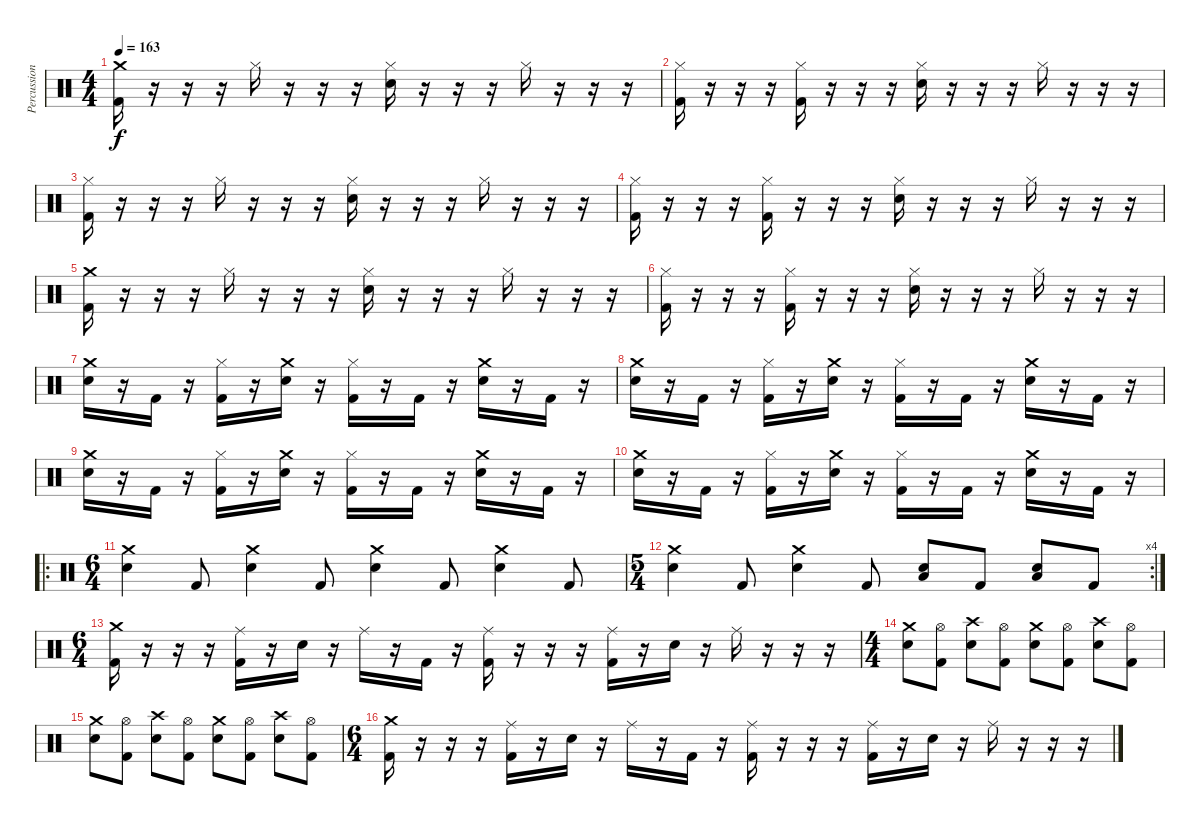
\track ("Percussion" "Percussion") {instrument percussion}
\staff {score}
\articulation defaults
\ts (4 4)
\tempo 163
\clef neutral
\ks c
("Crash medium (hit)" "Kick (hit) 2").16{dy f} r.16 r.16 r.16 "Hi-Hat (closed)".16 r.16 r.16 r.16 ("Hi-Hat (closed)" "Snare (hit) 2").16 r.16 r.16 r.16 "Hi-Hat (closed)".16 r.16 r.16 r.16 |
("Hi-Hat (closed)" "Kick (hit) 2").16 r.16 r.16 r.16 ("Hi-Hat (closed)" "Kick (hit) 2").16 r.16 r.16 r.16 ("Hi-Hat (closed)" "Snare (hit) 2").16 r.16 r.16 r.16 "Hi-Hat (closed)".16 r.16 r.16 r.16 |
("Hi-Hat (closed)" "Kick (hit) 2").16 r.16 r.16 r.16 "Hi-Hat (closed)".16 r.16 r.16 r.16 ("Hi-Hat (closed)" "Snare (hit) 2").16 r.16 r.16 r.16 "Hi-Hat (closed)".16 r.16 r.16 r.16 |
("Hi-Hat (closed)" "Kick (hit) 2").16 r.16 r.16 r.16 ("Hi-Hat (closed)" "Kick (hit) 2").16 r.16 r.16 r.16 ("Hi-Hat (closed)" "Snare (hit) 2").16 r.16 r.16 r.16 "Hi-Hat (closed)".16 r.16 r.16 r.16 |
("Crash medium (hit)" "Kick (hit) 2").16 r.16 r.16 r.16 "Hi-Hat (closed)".16 r.16 r.16 r.16 ("Hi-Hat (closed)" "Snare (hit) 2").16 r.16 r.16 r.16 "Hi-Hat (closed)".16 r.16 r.16 r.16 |
("Hi-Hat (closed)" "Kick (hit) 2").16 r.16 r.16 r.16 ("Hi-Hat (closed)" "Kick (hit) 2").16 r.16 r.16 r.16 ("Hi-Hat (closed)" "Snare (hit) 2").16 r.16 r.16 r.16 "Hi-Hat (closed)".16 r.16 r.16 r.16 |
("Crash medium (hit)" "Snare (hit) 2").16 r.16 "Kick (hit) 2".16 r.16 ("Hi-Hat (closed)" "Kick (hit) 2").16 r.16 ("Crash medium (hit)" "Snare (hit) 2").16 r.16 ("Hi-Hat (closed)" "Kick (hit) 2").16 r.16 "Kick (hit) 2".16 r.16 ("Crash medium (hit)" "Snare (hit) 2").16 r.16 "Kick (hit) 2".16 r.16 |
("Crash medium (hit)" "Snare (hit) 2").16 r.16 "Kick (hit) 2".16 r.16 ("Hi-Hat (closed)" "Kick (hit) 2").16 r.16 ("Crash medium (hit)" "Snare (hit) 2").16 r.16 ("Hi-Hat (closed)" "Kick (hit) 2").16 r.16 "Kick (hit) 2".16 r.16 ("Crash medium (hit)" "Snare (hit) 2").16 r.16 "Kick (hit) 2".16 r.16 |
("Crash medium (hit)" "Snare (hit) 2").16 r.16 "Kick (hit) 2".16 r.16 ("Hi-Hat (closed)" "Kick (hit) 2").16 r.16 ("Crash medium (hit)" "Snare (hit) 2").16 r.16 ("Hi-Hat (closed)" "Kick (hit) 2").16 r.16 "Kick (hit) 2".16 r.16 ("Crash medium (hit)" "Snare (hit) 2").16 r.16 "Kick (hit) 2".16 r.16 |
("Crash medium (hit)" "Snare (hit) 2").16 r.16 "Kick (hit) 2".16 r.16 ("Hi-Hat (closed)" "Kick (hit) 2").16 r.16 ("Crash medium (hit)" "Snare (hit) 2").16 r.16 ("Hi-Hat (closed)" "Kick (hit) 2").16 r.16 "Kick (hit) 2".16 r.16 ("Crash medium (hit)" "Snare (hit) 2").16 r.16 "Kick (hit) 2".16 r.16 |
\ro
\ts (6 4)
("Crash medium (hit)" "Snare (hit) 2").4 "Kick (hit) 2".8 ("Crash medium (hit)" "Snare (hit) 2").4 "Kick (hit) 2".8 ("Crash medium (hit)" "Snare (hit) 2").4 "Kick (hit) 2".8 ("Crash medium (hit)" "Snare (hit) 2").4 "Kick (hit) 2".8 |
\rc 4
\ts (5 4)
("Crash medium (hit)" "Snare (hit) 2").4 "Kick (hit) 2".8 ("Crash medium (hit)" "Snare (hit) 2").4 "Kick (hit) 2".8 ("Snare (hit) 2" "Low Tom (hit)").8 "Kick (hit) 2".8 ("Snare (hit) 2" "Low Floor Tom (hit)").8 "Kick (hit) 2".8 |
\ts (6 4)
("Crash medium (hit)" "Kick (hit) 2").16 r.16 r.16 r.16 ("Ride (middle)" "Kick (hit) 2").16 r.16 "Snare (hit) 2".16 r.16 "Ride (middle)".16 r.16 "Kick (hit) 2".16 r.16 ("Ride (middle)" "Kick (hit) 2").16 r.16 r.16 r.16 ("Ride (middle)" "Kick (hit) 2").16 r.16 "Snare (hit) 2".16 r.16 "Ride (middle)".16 r.16 r.16 r.16 |
\ts (4 4)
("Crash medium (hit)" "Snare (hit) 2").8 ("Hi-Hat (open)" "Kick (hit) 2").8 ("Crash high (hit)" "Snare (hit) 2").8 ("Hi-Hat (open)" "Kick (hit) 2").8 ("Crash medium (hit)" "Snare (hit) 2").8 ("Hi-Hat (open)" "Kick (hit) 2").8 ("Crash high (hit)" "Snare (hit) 2").8 ("Hi-Hat (open)" "Kick (hit) 2").8 |
("Crash medium (hit)" "Snare (hit) 2").8 ("Hi-Hat (open)" "Kick (hit) 2").8 ("Crash high (hit)" "Snare (hit) 2").8 ("Hi-Hat (open)" "Kick (hit) 2").8 ("Crash medium (hit)" "Snare (hit) 2").8 ("Hi-Hat (open)" "Kick (hit) 2").8 ("Crash high (hit)" "Snare (hit) 2").8 ("Hi-Hat (open)" "Kick (hit) 2").8 |
\ts (6 4)
("Crash medium (hit)" "Kick (hit) 2").16 r.16 r.16 r.16 ("Ride (middle)" "Kick (hit) 2").16 r.16 "Snare (hit) 2".16 r.16 "Ride (middle)".16 r.16 "Kick (hit) 2".16 r.16 ("Ride (middle)" "Kick (hit) 2").16 r.16 r.16 r.16 ("Ride (middle)" "Kick (hit) 2").16 r.16 "Snare (hit) 2".16 r.16 "Ride (middle)".16 r.16 r.16 r.16
